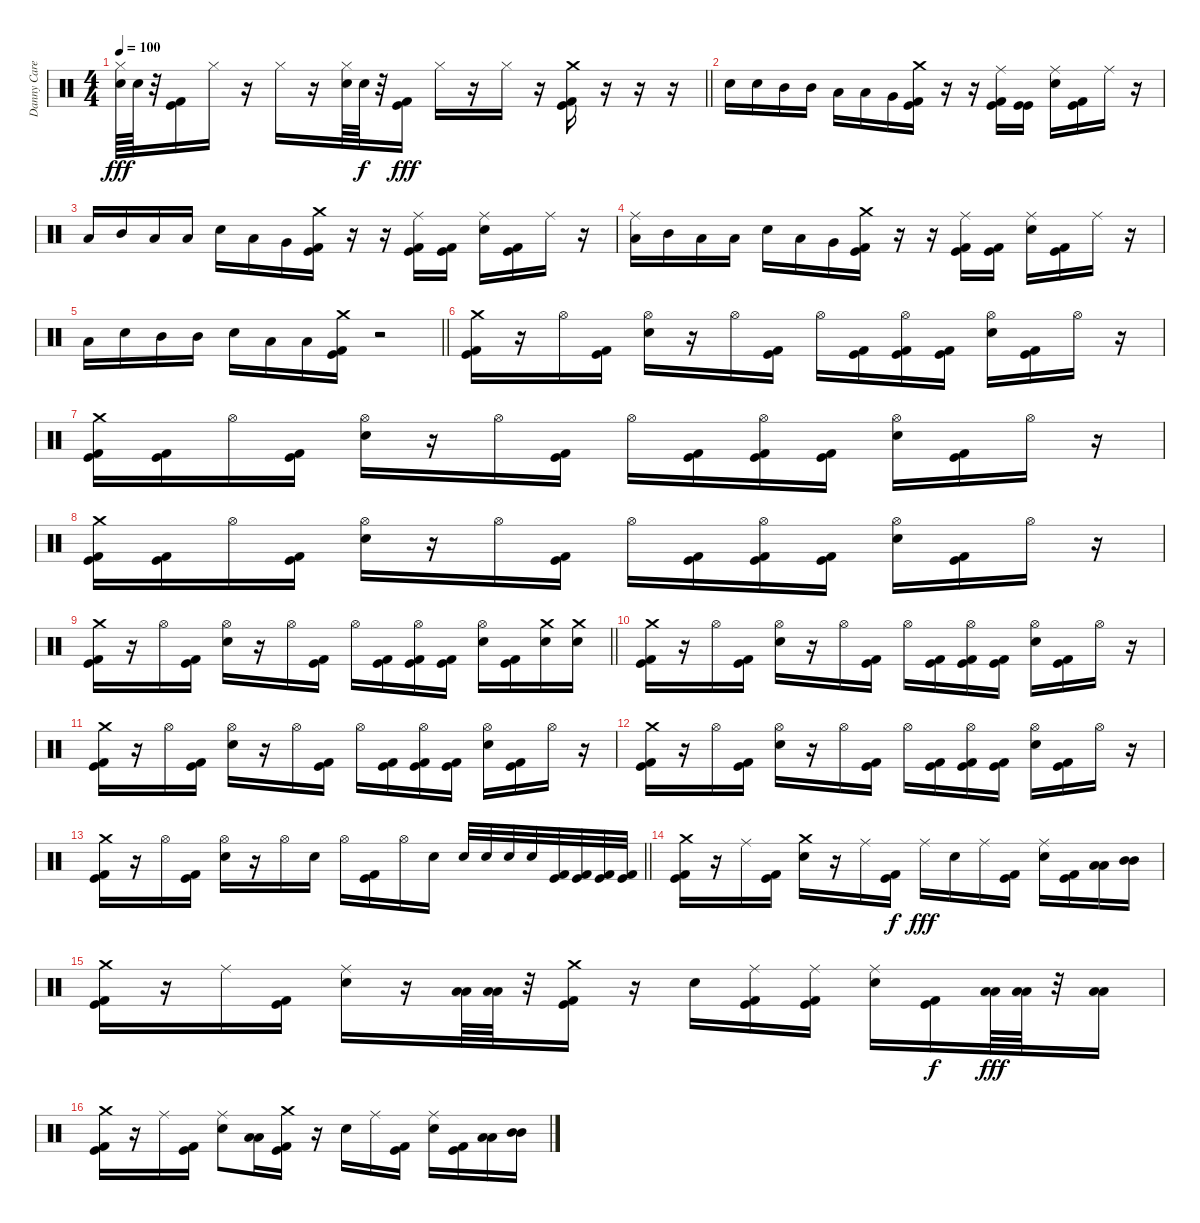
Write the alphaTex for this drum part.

\track ("Danny Carey" "Danny Care") {instrument percussion}
\staff {score}
\articulation defaults
\ts (4 4)
\tempo 100
\clef neutral
\barLineRight lightlight
\ks c
("Hi-Hat (closed)" "Electric Snare (hit)").64{dy fff} "Electric Snare (hit)".64 r.32 ("Kick (hit)" "Kick (hit) 2").16 "Hi-Hat (closed)".16 r.16 "Hi-Hat (closed)".16 r.16 ("Hi-Hat (closed)" "Electric Snare (hit)").64 "Electric Snare (hit)".64{dy f} r.32 ("Kick (hit)" "Kick (hit) 2").16{dy fff} "Hi-Hat (closed)".16 r.16 "Hi-Hat (closed)".16 r.16 ("Crash medium (hit)" "Kick (hit)" "Kick (hit) 2").16 r.16 r.16 r.16 |
"Electric Snare (hit)".16 "Electric Snare (hit)".16 "Mid Tom (hit)".16 "Mid Tom (hit)".16 "Low Tom (hit)".16 "Low Tom (hit)".16 "Very Low Tom (hit)".16 ("Crash medium (hit)" "Kick (hit)" "Kick (hit) 2").16 r.16 r.16 ("Ride (middle)" "Kick (hit)" "Kick (hit) 2").16 ("Kick (hit)" "Kick (hit)").16 ("Ride (middle)" "Electric Snare (hit)").16 ("Kick (hit)" "Kick (hit) 2").16 "Ride (middle)".16 r.16 |
"Low Tom (hit)".16 "Mid Tom (hit)".16 "Low Tom (hit)".16 "Low Tom (hit)".16 "Electric Snare (hit)".16 "Low Tom (hit)".16 "Very Low Tom (hit)".16 ("Crash medium (hit)" "Kick (hit)" "Kick (hit) 2").16 r.16 r.16 ("Ride (middle)" "Kick (hit)" "Kick (hit) 2").16 ("Kick (hit)" "Kick (hit) 2").16 ("Ride (middle)" "Electric Snare (hit)").16 ("Kick (hit)" "Kick (hit) 2").16 "Ride (middle)".16 r.16 |
("Ride (middle)" "Low Tom (hit)").16 "Mid Tom (hit)".16 "Low Tom (hit)".16 "Low Tom (hit)".16 "Electric Snare (hit)".16 "Low Tom (hit)".16 "Very Low Tom (hit)".16 ("Crash medium (hit)" "Kick (hit)" "Kick (hit) 2").16 r.16 r.16 ("Ride (middle)" "Kick (hit)" "Kick (hit) 2").16 ("Kick (hit)" "Kick (hit) 2").16 ("Ride (middle)" "Electric Snare (hit)").16 ("Kick (hit)" "Kick (hit) 2").16 "Ride (middle)".16 r.16 |
\barLineRight lightlight "Low Tom (hit)".16 "Electric Snare (hit)".16 "Mid Tom (hit)".16 "Mid Tom (hit)".16 "Electric Snare (hit)".16 "Low Tom (hit)".16 "Low Tom (hit)".16
("Crash medium (hit)" "Kick (hit)" "Kick (hit) 2").16 r.2 |
("Crash medium (hit)" "Kick (hit)" "Kick (hit) 2").16 r.16 "Hi-Hat (open)".16 ("Kick (hit)" "Kick (hit) 2").16 ("Hi-Hat (open)" "Electric Snare (hit)").16 r.16 "Hi-Hat (open)".16 ("Kick (hit)" "Kick (hit) 2").16 "Hi-Hat (open)".16 ("Kick (hit)" "Kick (hit) 2").16 ("Hi-Hat (open)" "Kick (hit)" "Kick (hit) 2").16 ("Kick (hit)" "Kick (hit) 2").16 ("Hi-Hat (open)" "Electric Snare (hit)").16 ("Kick (hit)" "Kick (hit) 2").16 "Hi-Hat (open)".16 r.16 |
("Crash medium (hit)" "Kick (hit)" "Kick (hit) 2").16 ("Kick (hit)" "Kick (hit) 2").16 "Hi-Hat (open)".16 ("Kick (hit)" "Kick (hit) 2").16 ("Hi-Hat (open)" "Electric Snare (hit)").16 r.16 "Hi-Hat (open)".16 ("Kick (hit)" "Kick (hit) 2").16 "Hi-Hat (open)".16 ("Kick (hit)" "Kick (hit) 2").16 ("Hi-Hat (open)" "Kick (hit)" "Kick (hit) 2").16 ("Kick (hit)" "Kick (hit) 2").16 ("Hi-Hat (open)" "Electric Snare (hit)").16 ("Kick (hit)" "Kick (hit) 2").16 "Hi-Hat (open)".16 r.16 |
("Crash medium (hit)" "Kick (hit)" "Kick (hit) 2").16 ("Kick (hit)" "Kick (hit) 2").16 "Hi-Hat (open)".16 ("Kick (hit)" "Kick (hit) 2").16 ("Hi-Hat (open)" "Electric Snare (hit)").16 r.16 "Hi-Hat (open)".16 ("Kick (hit)" "Kick (hit) 2").16 "Hi-Hat (open)".16 ("Kick (hit)" "Kick (hit) 2").16 ("Hi-Hat (open)" "Kick (hit)" "Kick (hit) 2").16 ("Kick (hit)" "Kick (hit) 2").16 ("Hi-Hat (open)" "Electric Snare (hit)").16 ("Kick (hit)" "Kick (hit) 2").16 "Hi-Hat (open)".16 r.16 |
\barLineRight lightlight
("Crash medium (hit)" "Kick (hit)" "Kick (hit) 2").16 r.16 "Hi-Hat (open)".16 ("Kick (hit)" "Kick (hit) 2").16 ("Hi-Hat (open)" "Electric Snare (hit)").16 r.16 "Hi-Hat (open)".16 ("Kick (hit)" "Kick (hit) 2").16 "Hi-Hat (open)".16 ("Kick (hit)" "Kick (hit) 2").16 ("Hi-Hat (open)" "Kick (hit)" "Kick (hit) 2").16 ("Kick (hit)" "Kick (hit) 2").16 ("Hi-Hat (open)" "Electric Snare (hit)").16 ("Kick (hit)" "Kick (hit) 2").16 ("Crash medium (hit)" "Electric Snare (hit)").16 ("Crash medium (hit)" "Electric Snare (hit)").16 |
("Crash medium (hit)" "Kick (hit)" "Kick (hit) 2").16 r.16 "Hi-Hat (open)".16 ("Kick (hit)" "Kick (hit) 2").16 ("Hi-Hat (open)" "Electric Snare (hit)").16 r.16 "Hi-Hat (open)".16 ("Kick (hit)" "Kick (hit) 2").16 "Hi-Hat (open)".16 ("Kick (hit)" "Kick (hit) 2").16 ("Hi-Hat (open)" "Kick (hit)" "Kick (hit) 2").16 ("Kick (hit)" "Kick (hit) 2").16 ("Hi-Hat (open)" "Electric Snare (hit)").16 ("Kick (hit)" "Kick (hit) 2").16 "Hi-Hat (open)".16 r.16 |
("Crash medium (hit)" "Kick (hit)" "Kick (hit) 2").16 r.16 "Hi-Hat (open)".16 ("Kick (hit)" "Kick (hit) 2").16 ("Hi-Hat (open)" "Electric Snare (hit)").16 r.16 "Hi-Hat (open)".16 ("Kick (hit)" "Kick (hit) 2").16 "Hi-Hat (open)".16 ("Kick (hit)" "Kick (hit) 2").16 ("Hi-Hat (open)" "Kick (hit)" "Kick (hit) 2").16 ("Kick (hit)" "Kick (hit) 2").16 ("Hi-Hat (open)" "Electric Snare (hit)").16 ("Kick (hit)" "Kick (hit) 2").16 "Hi-Hat (open)".16 r.16 |
("Crash medium (hit)" "Kick (hit)" "Kick (hit) 2").16 r.16 "Hi-Hat (open)".16 ("Kick (hit)" "Kick (hit) 2").16 ("Hi-Hat (open)" "Electric Snare (hit)").16 r.16 "Hi-Hat (open)".16 ("Kick (hit)" "Kick (hit) 2").16 "Hi-Hat (open)".16 ("Kick (hit)" "Kick (hit) 2").16 ("Hi-Hat (open)" "Kick (hit)" "Kick (hit) 2").16 ("Kick (hit)" "Kick (hit) 2").16 ("Hi-Hat (open)" "Electric Snare (hit)").16 ("Kick (hit)" "Kick (hit) 2").16 "Hi-Hat (open)".16 r.16 |
\barLineRight lightlight
("Crash medium (hit)" "Kick (hit)" "Kick (hit) 2").16 r.16 "Hi-Hat (open)".16 ("Kick (hit)" "Kick (hit) 2").16 ("Hi-Hat (open)" "Electric Snare (hit)").16 r.16 "Hi-Hat (open)".16 "Electric Snare (hit)".16 "Hi-Hat (open)".16 ("Kick (hit)" "Kick (hit) 2").16 "Hi-Hat (open)".16 "Electric Snare (hit)".16 "Electric Snare (hit)".32 "Electric Snare (hit)".32 "Electric Snare (hit)".32 "Electric Snare (hit)".32 ("Kick (hit)" "Kick (hit) 2").32 ("Kick (hit)" "Kick (hit) 2").32 ("Kick (hit)" "Kick (hit) 2").32 ("Kick (hit)" "Kick (hit) 2").32 |
("Crash medium (hit)" "Kick (hit)" "Kick (hit) 2").16 r.16 "Ride (middle)".16 ("Kick (hit)" "Kick (hit) 2").16 ("Crash medium (hit)" "Electric Snare (hit)").16 r.16 "Ride (middle)".16 ("Kick (hit)" "Kick (hit) 2").16{dy f} "Ride (middle)".16{dy fff} "Electric Snare (hit)".16 "Ride (middle)".16 ("Kick (hit)" "Kick (hit) 2").16 ("Ride (middle)" "Electric Snare (hit)").16 ("Kick (hit)" "Kick (hit) 2").16 ("Low Tom (hit)" "Low Tom (hit)").16 ("Mid Tom (hit)" "Mid Tom (hit)").16 |
("Crash medium (hit)" "Kick (hit)" "Kick (hit) 2").16 r.16 "Ride (middle)".16 ("Kick (hit)" "Kick (hit) 2").16 ("Ride (middle)" "Electric Snare (hit)").16 r.16 ("Low Tom (hit)" "Low Tom (hit)").64 ("Low Tom (hit)" "Low Tom (hit)").64 r.32 ("Crash medium (hit)" "Kick (hit)" "Kick (hit) 2").16 r.16 "Electric Snare (hit)".16 ("Ride (middle)" "Kick (hit)" "Kick (hit) 2").16 ("Ride (middle)" "Kick (hit)" "Kick (hit) 2").16 ("Ride (middle)" "Electric Snare (hit)").16 ("Kick (hit)" "Kick (hit) 2").16{dy f} ("Low Tom (hit)" "Low Tom (hit)").64{dy fff} ("Low Tom (hit)" "Low Tom (hit)").64 r.32 ("Low Tom (hit)" "Low Tom (hit)").16 |
("Crash medium (hit)" "Kick (hit)" "Kick (hit) 2").16 r.16 "Ride (middle)".16 ("Kick (hit)" "Kick (hit) 2").16 ("Ride (middle)" "Electric Snare (hit)").8 ("Low Tom (hit)" "Low Tom (hit)").16 ("Crash medium (hit)" "Kick (hit)" "Kick (hit) 2").16 r.16 "Electric Snare (hit)".16 "Ride (middle)".16 ("Kick (hit)" "Kick (hit) 2").16 ("Ride (middle)" "Electric Snare (hit)").16 ("Kick (hit)" "Kick (hit) 2").16 ("Low Tom (hit)" "Low Tom (hit)").16 ("Mid Tom (hit)" "Mid Tom (hit)").16
